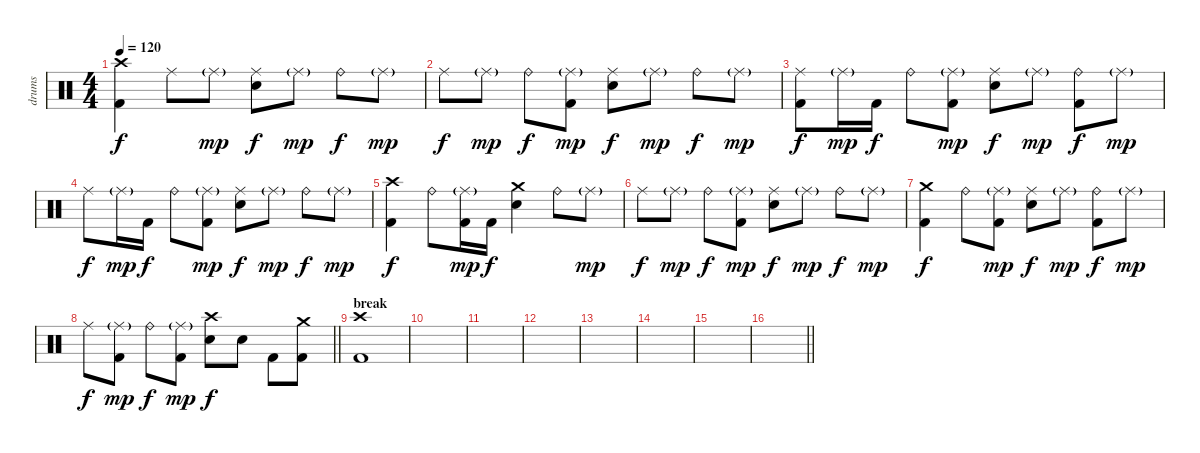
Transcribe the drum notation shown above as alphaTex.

\track ("drums" "drums") {instrument percussion}
\staff {score}
\articulation defaults
\ts (4 4)
\tempo 120
\clef neutral
\ks c
("Crash high (hit)" "Kick (hit) 2").4{dy f} "Ride (middle)".8 "Ride (middle)"{g}.8{dy mp} ("Ride (middle)" "Electric Snare (hit)").8{dy f} "Ride (middle)"{g}.8{dy mp} "Ride (bell)".8{dy f} "Ride (middle)"{g}.8{dy mp} |
"Ride (middle)".8{dy f} "Ride (middle)"{g}.8{dy mp} "Ride (bell)".8{dy f} ("Ride (middle)"{g} "Kick (hit) 2").8{dy mp} ("Ride (middle)" "Electric Snare (hit)").8{dy f} "Ride (middle)"{g}.8{dy mp} "Ride (bell)".8{dy f} "Ride (middle)"{g}.8{dy mp} |
("Ride (middle)" "Kick (hit) 2").8{dy f} "Ride (middle)"{g}.16{dy mp} "Kick (hit) 2".16{dy f} "Ride (bell)".8 ("Ride (middle)"{g} "Kick (hit) 2").8{dy mp} ("Ride (middle)" "Electric Snare (hit)").8{dy f} "Ride (middle)"{g}.8{dy mp} ("Ride (bell)" "Kick (hit) 2").8{dy f} "Ride (middle)"{g}.8{dy mp} |
"Ride (middle)".8{dy f} "Ride (middle)"{g}.16{dy mp} "Kick (hit) 2".16{dy f} "Ride (bell)".8 ("Ride (middle)"{g} "Kick (hit) 2").8{dy mp} ("Ride (middle)" "Electric Snare (hit)").8{dy f} "Ride (middle)"{g}.8{dy mp} "Ride (bell)".8{dy f} "Ride (middle)"{g}.8{dy mp} |
("Crash high (hit)" "Kick (hit) 2").4{dy f} "Ride (bell)".8 ("Ride (middle)"{g} "Kick (hit) 2").16{dy mp} "Kick (hit) 2".16{dy f} ("Crash medium (hit)" "Electric Snare (hit)").4 "Ride (bell)".8 "Ride (middle)"{g}.8{dy mp} |
"Ride (middle)".8{dy f} "Ride (middle)"{g}.8{dy mp} "Ride (bell)".8{dy f} ("Ride (middle)"{g} "Kick (hit) 2").8{dy mp} ("Ride (middle)" "Electric Snare (hit)").8{dy f} "Ride (middle)"{g}.8{dy mp} "Ride (bell)".8{dy f} "Ride (middle)"{g}.8{dy mp} |
("Crash medium (hit)" "Kick (hit) 2").4{dy f} "Ride (bell)".8 ("Ride (middle)"{g} "Kick (hit) 2").8{dy mp} ("Ride (middle)" "Electric Snare (hit)").8{dy f} "Ride (middle)"{g}.8{dy mp} ("Ride (bell)" "Kick (hit) 2").8{dy f} "Ride (middle)"{g}.8{dy mp} |
\barLineRight lightlight "Ride (middle)".8{dy f}
("Ride (middle)"{g} "Kick (hit) 2").8{dy mp} "Ride (bell)".8{dy f} ("Ride (middle)"{g} "Kick (hit) 2").8{dy mp} ("Crash high (hit)" "Electric Snare (hit)").8{dy f} "Electric Snare (hit)".8 "Kick (hit) 2".8 ("Crash medium (hit)" "Kick (hit) 2").8 |
\section ("" "break")
("Crash high (hit)" "Kick (hit) 2").1 |
|
|
|
|
|
|
\barLineRight lightlight
